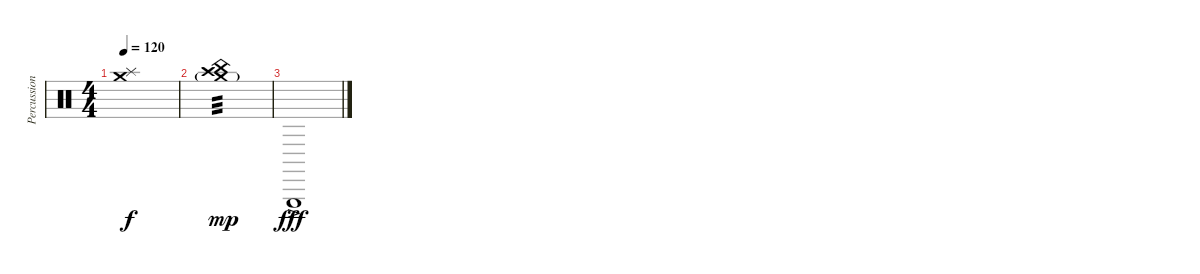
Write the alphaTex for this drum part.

\track ("Percussion" "Percussion") {instrument percussion}
\staff {score}
\articulation defaults
\ts (4 4)
\tempo 120
\clef neutral
\ks c
("Crash medium (hit)" "Splash (hit)").1{dy f} |
("China (hit)" "Crash medium (hit)"{g} "Crash high (hit)").1{tp 3 dy mp} |
"Triangle (hit)"{ac}.1{dy fff}
